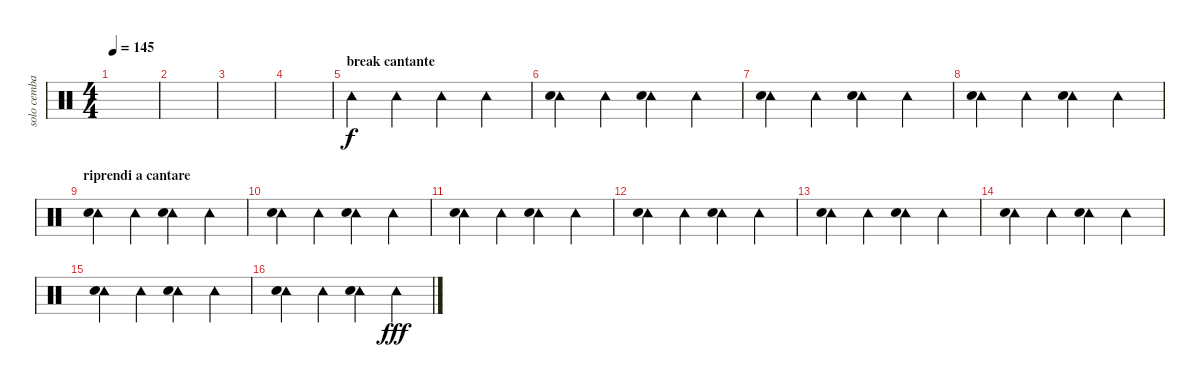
\track ("solo cembalo" "solo cemba") {instrument percussion}
\staff {score}
\articulation defaults
\ts (4 4)
\tempo 145
\clef neutral
\ks c
|
|
|
|
\section ("" "break cantante")
"Tambourine (hit)".4 "Tambourine (hit)".4 "Tambourine (hit)".4 "Tambourine (hit)".4 |
("Tambourine (hit)" "Hand Clap (hit)").4 "Tambourine (hit)".4 ("Tambourine (hit)" "Hand Clap (hit)").4 "Tambourine (hit)".4 |
("Tambourine (hit)" "Hand Clap (hit)").4 "Tambourine (hit)".4 ("Tambourine (hit)" "Hand Clap (hit)").4 "Tambourine (hit)".4 |
("Tambourine (hit)" "Hand Clap (hit)").4 "Tambourine (hit)".4 ("Tambourine (hit)" "Hand Clap (hit)").4 "Tambourine (hit)".4 |
\section ("" "riprendi a cantare")
("Tambourine (hit)" "Hand Clap (hit)").4 "Tambourine (hit)".4 ("Tambourine (hit)" "Hand Clap (hit)").4 "Tambourine (hit)".4 |
("Tambourine (hit)" "Hand Clap (hit)").4 "Tambourine (hit)".4 ("Tambourine (hit)" "Hand Clap (hit)").4 "Tambourine (hit)".4 |
("Tambourine (hit)" "Hand Clap (hit)").4 "Tambourine (hit)".4 ("Tambourine (hit)" "Hand Clap (hit)").4 "Tambourine (hit)".4 |
("Tambourine (hit)" "Hand Clap (hit)").4 "Tambourine (hit)".4 ("Tambourine (hit)" "Hand Clap (hit)").4 "Tambourine (hit)".4 |
("Tambourine (hit)" "Hand Clap (hit)").4 "Tambourine (hit)".4 ("Tambourine (hit)" "Hand Clap (hit)").4 "Tambourine (hit)".4 |
("Tambourine (hit)" "Hand Clap (hit)").4 "Tambourine (hit)".4 ("Tambourine (hit)" "Hand Clap (hit)").4 "Tambourine (hit)".4 |
("Tambourine (hit)" "Hand Clap (hit)").4 "Tambourine (hit)".4 ("Tambourine (hit)" "Hand Clap (hit)").4 "Tambourine (hit)".4 |
("Tambourine (hit)" "Hand Clap (hit)").4 "Tambourine (hit)".4 ("Tambourine (hit)" "Hand Clap (hit)").4 "Tambourine (hit)".4{dy fff}
